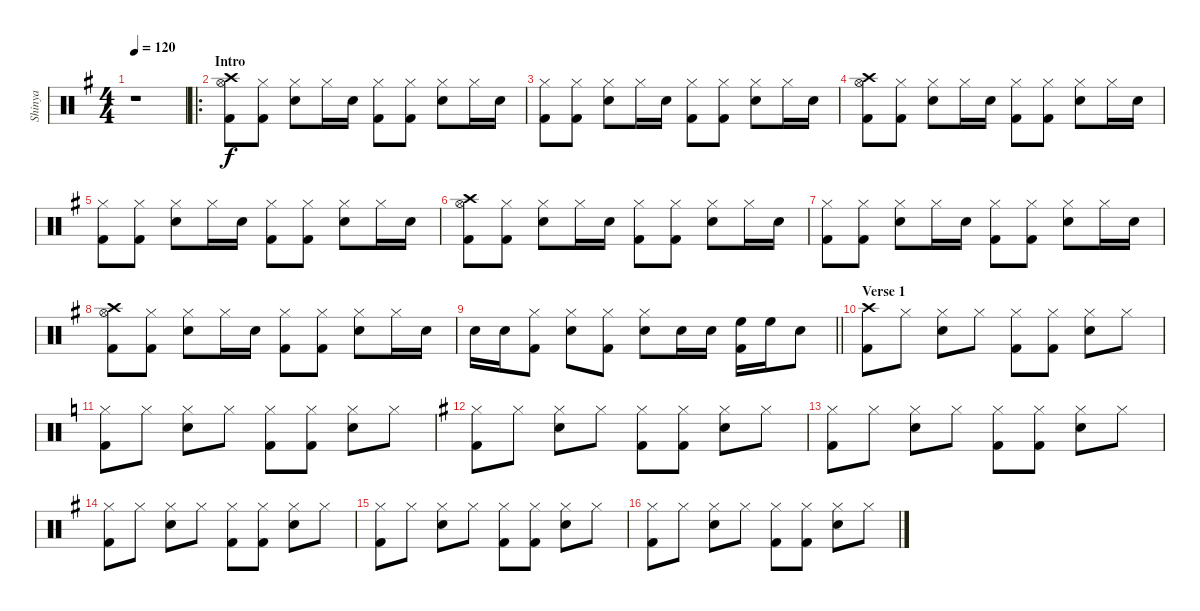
\track ("Shinya" "Shinya") {instrument percussion}
\staff {score}
\articulation defaults
\ts (4 4)
\tempo 120
\clef neutral
\ks g
r.1{dy f} |
\ro
\section ("" "Intro")
("Crash high (hit)" "Hi-Hat (open)" "Kick (hit) 2").8 ("Hi-Hat (closed)" "Kick (hit) 2").8 ("Hi-Hat (closed)" "Snare (hit) 2").8 "Hi-Hat (closed)".16 "Snare (hit) 2".16 ("Hi-Hat (closed)" "Kick (hit) 2").8 ("Hi-Hat (closed)" "Kick (hit) 2").8 ("Hi-Hat (closed)" "Snare (hit) 2").8 "Hi-Hat (closed)".16 "Snare (hit) 2".16 |
("Hi-Hat (closed)" "Kick (hit) 2").8 ("Hi-Hat (closed)" "Kick (hit) 2").8 ("Hi-Hat (closed)" "Snare (hit) 2").8 "Hi-Hat (closed)".16 "Snare (hit) 2".16 ("Hi-Hat (closed)" "Kick (hit) 2").8 ("Hi-Hat (closed)" "Kick (hit) 2").8 ("Hi-Hat (closed)" "Snare (hit) 2").8 "Hi-Hat (closed)".16 "Snare (hit) 2".16 |
("Crash high (hit)" "Hi-Hat (open)" "Kick (hit) 2").8 ("Hi-Hat (closed)" "Kick (hit) 2").8 ("Hi-Hat (closed)" "Snare (hit) 2").8 "Hi-Hat (closed)".16 "Snare (hit) 2".16 ("Hi-Hat (closed)" "Kick (hit) 2").8 ("Hi-Hat (closed)" "Kick (hit) 2").8 ("Hi-Hat (closed)" "Snare (hit) 2").8 "Hi-Hat (closed)".16 "Snare (hit) 2".16 |
("Hi-Hat (closed)" "Kick (hit) 2").8 ("Hi-Hat (closed)" "Kick (hit) 2").8 ("Hi-Hat (closed)" "Snare (hit) 2").8 "Hi-Hat (closed)".16 "Snare (hit) 2".16 ("Hi-Hat (closed)" "Kick (hit) 2").8 ("Hi-Hat (closed)" "Kick (hit) 2").8 ("Hi-Hat (closed)" "Snare (hit) 2").8 "Hi-Hat (closed)".16 "Snare (hit) 2".16 |
("Crash high (hit)" "Hi-Hat (open)" "Kick (hit) 2").8 ("Hi-Hat (closed)" "Kick (hit) 2").8 ("Hi-Hat (closed)" "Snare (hit) 2").8 "Hi-Hat (closed)".16 "Snare (hit) 2".16 ("Hi-Hat (closed)" "Kick (hit) 2").8 ("Hi-Hat (closed)" "Kick (hit) 2").8 ("Hi-Hat (closed)" "Snare (hit) 2").8 "Hi-Hat (closed)".16 "Snare (hit) 2".16 |
("Hi-Hat (closed)" "Kick (hit) 2").8 ("Hi-Hat (closed)" "Kick (hit) 2").8 ("Hi-Hat (closed)" "Snare (hit) 2").8 "Hi-Hat (closed)".16 "Snare (hit) 2".16 ("Hi-Hat (closed)" "Kick (hit) 2").8 ("Hi-Hat (closed)" "Kick (hit) 2").8 ("Hi-Hat (closed)" "Snare (hit) 2").8 "Hi-Hat (closed)".16 "Snare (hit) 2".16 |
("Crash high (hit)" "Hi-Hat (open)" "Kick (hit) 2").8 ("Hi-Hat (closed)" "Kick (hit) 2").8 ("Hi-Hat (closed)" "Snare (hit) 2").8 "Hi-Hat (closed)".16 "Snare (hit) 2".16 ("Hi-Hat (closed)" "Kick (hit) 2").8 ("Hi-Hat (closed)" "Kick (hit) 2").8 ("Hi-Hat (closed)" "Snare (hit) 2").8 "Hi-Hat (closed)".16 "Snare (hit) 2".16 |
\barLineRight lightlight "Snare (hit) 2".16 "Snare (hit) 2".16
("Hi-Hat (closed)" "Kick (hit) 2").8 ("Hi-Hat (closed)" "Snare (hit) 2").8 ("Hi-Hat (closed)" "Kick (hit) 2").8 ("Hi-Hat (closed)" "Snare (hit) 2").8 "Snare (hit) 2".16 "Snare (hit) 2".16 ("High Floor Tom (hit)" "Kick (hit) 2").16 "High Floor Tom (hit)".16 "Snare (hit) 2".8 |
\section ("" "Verse 1")
("Crash high (hit)" "Kick (hit) 2").8 "Hi-Hat (closed)".8 ("Hi-Hat (closed)" "Snare (hit) 2").8 "Hi-Hat (closed)".8 ("Hi-Hat (closed)" "Kick (hit) 2").8 ("Hi-Hat (closed)" "Kick (hit) 2").8 ("Hi-Hat (closed)" "Snare (hit) 2").8 "Hi-Hat (closed)".8 |
\ks c
("Hi-Hat (closed)" "Kick (hit) 2").8 "Hi-Hat (closed)".8 ("Hi-Hat (closed)" "Snare (hit) 2").8 "Hi-Hat (closed)".8 ("Hi-Hat (closed)" "Kick (hit) 2").8 ("Hi-Hat (closed)" "Kick (hit) 2").8 ("Hi-Hat (closed)" "Snare (hit) 2").8 "Hi-Hat (closed)".8 |
\ks g
("Hi-Hat (closed)" "Kick (hit) 2").8 "Hi-Hat (closed)".8 ("Hi-Hat (closed)" "Snare (hit) 2").8 "Hi-Hat (closed)".8 ("Hi-Hat (closed)" "Kick (hit) 2").8 ("Hi-Hat (closed)" "Kick (hit) 2").8 ("Hi-Hat (closed)" "Snare (hit) 2").8 "Hi-Hat (closed)".8 |
("Hi-Hat (closed)" "Kick (hit) 2").8 "Hi-Hat (closed)".8 ("Hi-Hat (closed)" "Snare (hit) 2").8 "Hi-Hat (closed)".8 ("Hi-Hat (closed)" "Kick (hit) 2").8 ("Hi-Hat (closed)" "Kick (hit) 2").8 ("Hi-Hat (closed)" "Snare (hit) 2").8 "Hi-Hat (closed)".8 |
("Hi-Hat (closed)" "Kick (hit) 2").8 "Hi-Hat (closed)".8 ("Hi-Hat (closed)" "Snare (hit) 2").8 "Hi-Hat (closed)".8 ("Hi-Hat (closed)" "Kick (hit) 2").8 ("Hi-Hat (closed)" "Kick (hit) 2").8 ("Hi-Hat (closed)" "Snare (hit) 2").8 "Hi-Hat (closed)".8 |
("Hi-Hat (closed)" "Kick (hit) 2").8 "Hi-Hat (closed)".8 ("Hi-Hat (closed)" "Snare (hit) 2").8 "Hi-Hat (closed)".8 ("Hi-Hat (closed)" "Kick (hit) 2").8 ("Hi-Hat (closed)" "Kick (hit) 2").8 ("Hi-Hat (closed)" "Snare (hit) 2").8 "Hi-Hat (closed)".8 |
("Hi-Hat (closed)" "Kick (hit) 2").8 "Hi-Hat (closed)".8 ("Hi-Hat (closed)" "Snare (hit) 2").8 "Hi-Hat (closed)".8 ("Hi-Hat (closed)" "Kick (hit) 2").8 ("Hi-Hat (closed)" "Kick (hit) 2").8 ("Hi-Hat (closed)" "Snare (hit) 2").8 "Hi-Hat (closed)".8
